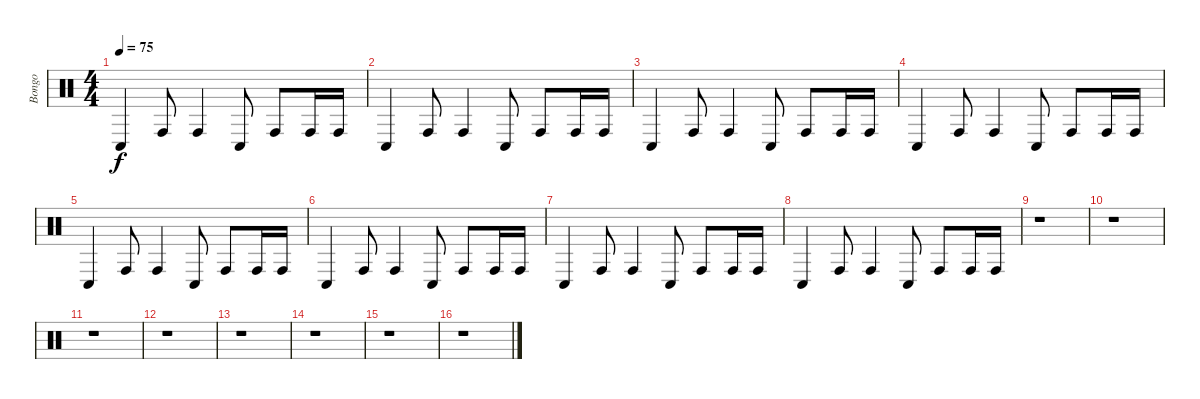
\track ("Bongo" "Bongo") {instrument percussion}
\staff {score}
\articulation defaults
\ts (4 4)
\tempo 75
\clef neutral
\ks c "Conga low (hit)".4{dy f} "Conga high (hit)".8 "Conga high (hit)".4 "Conga low (hit)".8 "Conga high (hit)".8 "Conga high (hit)".16 "Conga high (hit)".16
|
"Conga low (hit)".4 "Conga high (hit)".8 "Conga high (hit)".4 "Conga low (hit)".8 "Conga high (hit)".8 "Conga high (hit)".16 "Conga high (hit)".16 |
"Conga low (hit)".4 "Conga high (hit)".8 "Conga high (hit)".4 "Conga low (hit)".8 "Conga high (hit)".8 "Conga high (hit)".16 "Conga high (hit)".16 |
"Conga low (hit)".4 "Conga high (hit)".8 "Conga high (hit)".4 "Conga low (hit)".8 "Conga high (hit)".8 "Conga high (hit)".16 "Conga high (hit)".16 |
"Conga low (hit)".4 "Conga high (hit)".8 "Conga high (hit)".4 "Conga low (hit)".8 "Conga high (hit)".8 "Conga high (hit)".16 "Conga high (hit)".16 |
"Conga low (hit)".4 "Conga high (hit)".8 "Conga high (hit)".4 "Conga low (hit)".8 "Conga high (hit)".8 "Conga high (hit)".16 "Conga high (hit)".16 |
"Conga low (hit)".4 "Conga high (hit)".8 "Conga high (hit)".4 "Conga low (hit)".8 "Conga high (hit)".8 "Conga high (hit)".16 "Conga high (hit)".16 |
"Conga low (hit)".4 "Conga high (hit)".8 "Conga high (hit)".4 "Conga low (hit)".8 "Conga high (hit)".8 "Conga high (hit)".16 "Conga high (hit)".16 |
r.1 |
r.1 |
r.1 |
r.1 |
r.1 |
r.1 |
r.1 |
r.1
